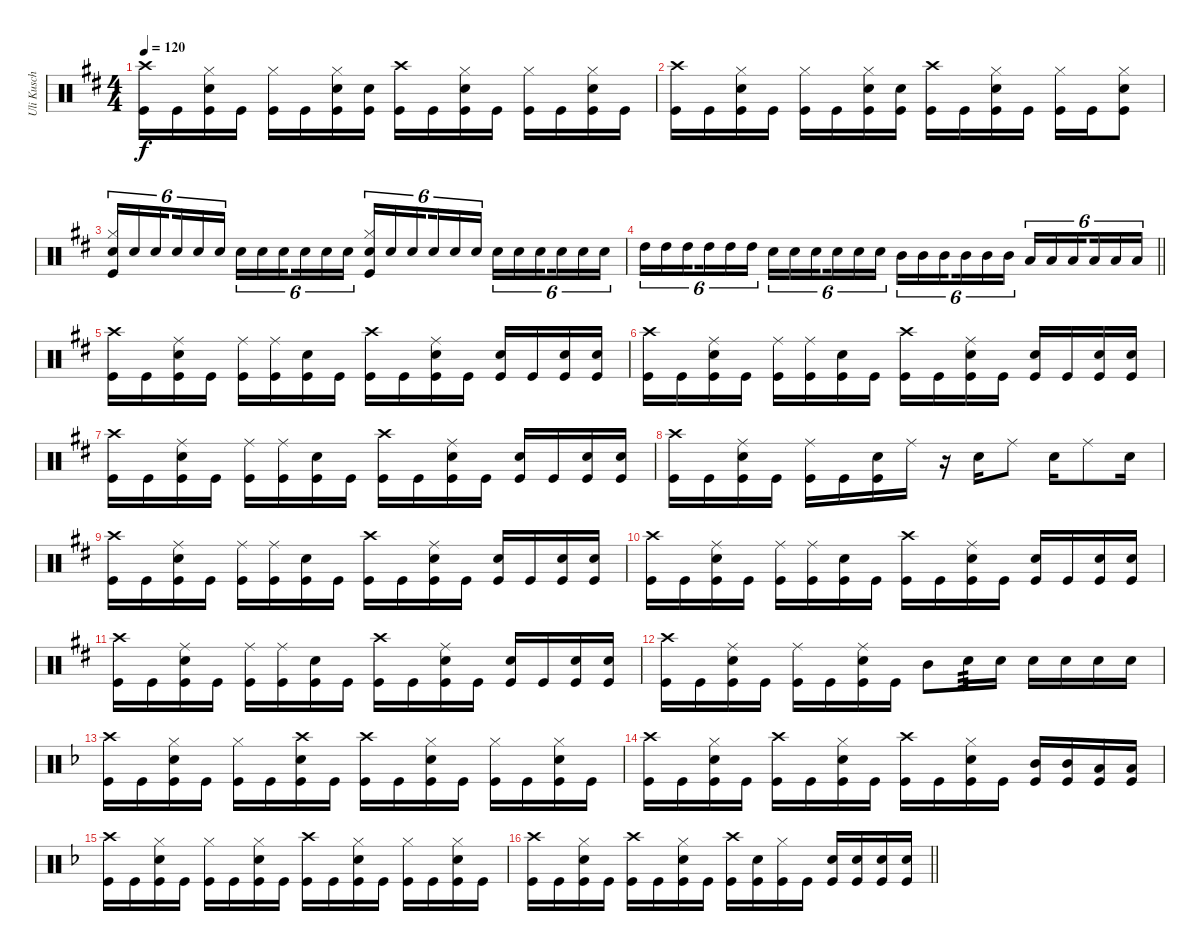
\track ("Uli Kusch" "Uli Kusch") {instrument percussion}
\staff {score}
\articulation defaults
\ts (4 4)
\tempo 120
\clef neutral
\ks d
("Crash high (hit)" "Kick (hit)").16{dy f} "Kick (hit)".16 ("Hi-Hat (closed)" "Snare (hit) 2" "Kick (hit)").16 "Kick (hit)".16 ("Hi-Hat (closed)" "Kick (hit)").16 "Kick (hit)".16 ("Hi-Hat (closed)" "Snare (hit) 2" "Kick (hit)").16 ("Snare (hit) 2" "Kick (hit)").16 ("Crash high (hit)" "Kick (hit)").16 "Kick (hit)".16 ("Hi-Hat (closed)" "Snare (hit) 2" "Kick (hit)").16 "Kick (hit)".16 ("Hi-Hat (closed)" "Kick (hit)").16 "Kick (hit)".16 ("Hi-Hat (closed)" "Snare (hit) 2" "Kick (hit)").16 "Kick (hit)".16 |
("Crash high (hit)" "Kick (hit)").16 "Kick (hit)".16 ("Hi-Hat (closed)" "Snare (hit) 2" "Kick (hit)").16 "Kick (hit)".16 ("Hi-Hat (closed)" "Kick (hit)").16 "Kick (hit)".16 ("Hi-Hat (closed)" "Snare (hit) 2" "Kick (hit)").16 ("Snare (hit) 2" "Kick (hit)").16 ("Crash high (hit)" "Kick (hit)").16 "Kick (hit)".16 ("Hi-Hat (closed)" "Snare (hit) 2" "Kick (hit)").16 "Kick (hit)".16 ("Hi-Hat (closed)" "Kick (hit)").16 "Kick (hit)".16 ("Hi-Hat (closed)" "Snare (hit) 2" "Kick (hit)").8 |
("Hi-Hat (closed)" "Snare (hit) 2" "Kick (hit)").16{tu (6 4)} "Snare (hit) 2".16{tu (6 4)} "Snare (hit) 2".16{tu (6 4) beam splitsecondary} "Snare (hit) 2".16{tu (6 4)} "Snare (hit) 2".16{tu (6 4)} "Snare (hit) 2".16{tu (6 4)} "Snare (hit) 2".16{tu (6 4)} "Snare (hit) 2".16{tu (6 4)} "Snare (hit) 2".16{tu (6 4) beam splitsecondary} "Snare (hit) 2".16{tu (6 4)} "Snare (hit) 2".16{tu (6 4)} "Snare (hit) 2".16{tu (6 4)} ("Hi-Hat (closed)" "Snare (hit) 2" "Kick (hit)").16{tu (6 4)} "Snare (hit) 2".16{tu (6 4)} "Snare (hit) 2".16{tu (6 4) beam splitsecondary} "Snare (hit) 2".16{tu (6 4)} "Snare (hit) 2".16{tu (6 4)} "Snare (hit) 2".16{tu (6 4)} "Snare (hit) 2".16{tu (6 4)} "Snare (hit) 2".16{tu (6 4)} "Snare (hit) 2".16{tu (6 4) beam splitsecondary} "Snare (hit) 2".16{tu (6 4)} "Snare (hit) 2".16{tu (6 4)} "Snare (hit) 2".16{tu (6 4)} |
\barLineRight lightlight "High Tom (hit)".16{tu (6 4)} "High Tom (hit)".16{tu (6 4)} "High Tom (hit)".16{tu (6 4) beam splitsecondary} "High Tom (hit)".16{tu (6 4)} "High Tom (hit)".16{tu (6 4)} "High Tom (hit)".16{tu (6 4)} "Snare (hit) 2".16{tu (6 4)} "Snare (hit) 2".16{tu (6 4)} "Snare (hit) 2".16{tu (6 4) beam splitsecondary} "Snare (hit) 2".16{tu (6 4)} "Snare (hit) 2".16{tu (6 4)} "Snare (hit) 2".16{tu (6 4)} "Mid Tom (hit)".16{tu (6 4)} "Mid Tom (hit)".16{tu (6 4)} "Mid Tom (hit)".16{tu (6 4) beam splitsecondary} "Mid Tom (hit)".16{tu (6 4)} "Mid Tom (hit)".16{tu (6 4)} "Mid Tom (hit)".16{tu (6 4)} "Low Tom (hit)".16{tu (6 4)} "Low Tom (hit)".16{tu (6 4)} "Low Tom (hit)".16{tu (6 4) beam splitsecondary} "Low Tom (hit)".16{tu (6 4)} "Low Tom (hit)".16{tu (6 4)} "Low Tom (hit)".16{tu (6 4)}
|
("Crash high (hit)" "Kick (hit)").16 "Kick (hit)".16 ("Ride (middle)" "Snare (hit) 2" "Kick (hit)").16 "Kick (hit)".16 ("Ride (middle)" "Kick (hit)").16 ("Ride (middle)" "Kick (hit)").16 ("Snare (hit) 2" "Kick (hit)").16 "Kick (hit)".16 ("Crash high (hit)" "Kick (hit)").16 "Kick (hit)".16 ("Ride (middle)" "Snare (hit) 2" "Kick (hit)").16 "Kick (hit)".16 ("Snare (hit) 2" "Kick (hit)").16 "Kick (hit)".16 ("Snare (hit) 2" "Kick (hit)").16 ("Snare (hit) 2" "Kick (hit)").16 |
("Crash high (hit)" "Kick (hit)").16 "Kick (hit)".16 ("Ride (middle)" "Snare (hit) 2" "Kick (hit)").16 "Kick (hit)".16 ("Ride (middle)" "Kick (hit)").16 ("Ride (middle)" "Kick (hit)").16 ("Snare (hit) 2" "Kick (hit)").16 "Kick (hit)".16 ("Crash high (hit)" "Kick (hit)").16 "Kick (hit)".16 ("Ride (middle)" "Snare (hit) 2" "Kick (hit)").16 "Kick (hit)".16 ("Snare (hit) 2" "Kick (hit)").16 "Kick (hit)".16 ("Snare (hit) 2" "Kick (hit)").16 ("Snare (hit) 2" "Kick (hit)").16 |
("Crash high (hit)" "Kick (hit)").16 "Kick (hit)".16 ("Ride (middle)" "Snare (hit) 2" "Kick (hit)").16 "Kick (hit)".16 ("Ride (middle)" "Kick (hit)").16 ("Ride (middle)" "Kick (hit)").16 ("Snare (hit) 2" "Kick (hit)").16 "Kick (hit)".16 ("Crash high (hit)" "Kick (hit)").16 "Kick (hit)".16 ("Ride (middle)" "Snare (hit) 2" "Kick (hit)").16 "Kick (hit)".16 ("Snare (hit) 2" "Kick (hit)").16 "Kick (hit)".16 ("Snare (hit) 2" "Kick (hit)").16 ("Snare (hit) 2" "Kick (hit)").16 |
("Crash high (hit)" "Kick (hit)").16 "Kick (hit)".16 ("Ride (middle)" "Snare (hit) 2" "Kick (hit)").16 "Kick (hit)".16 ("Ride (middle)" "Kick (hit)").16 "Kick (hit)".16 ("Snare (hit) 2" "Kick (hit)").16 "Ride (middle)".16 r.16 "Snare (hit) 2".16 "Ride (middle)".8 "Snare (hit) 2".16 "Ride (middle)".8 "Snare (hit) 2".16 |
("Crash high (hit)" "Kick (hit)").16 "Kick (hit)".16 ("Ride (middle)" "Snare (hit) 2" "Kick (hit)").16 "Kick (hit)".16 ("Ride (middle)" "Kick (hit)").16 ("Ride (middle)" "Kick (hit)").16 ("Snare (hit) 2" "Kick (hit)").16 "Kick (hit)".16 ("Crash high (hit)" "Kick (hit)").16 "Kick (hit)".16 ("Ride (middle)" "Snare (hit) 2" "Kick (hit)").16 "Kick (hit)".16 ("Snare (hit) 2" "Kick (hit)").16 "Kick (hit)".16 ("Snare (hit) 2" "Kick (hit)").16 ("Snare (hit) 2" "Kick (hit)").16 |
("Crash high (hit)" "Kick (hit)").16 "Kick (hit)".16 ("Ride (middle)" "Snare (hit) 2" "Kick (hit)").16 "Kick (hit)".16 ("Ride (middle)" "Kick (hit)").16 ("Ride (middle)" "Kick (hit)").16 ("Snare (hit) 2" "Kick (hit)").16 "Kick (hit)".16 ("Crash high (hit)" "Kick (hit)").16 "Kick (hit)".16 ("Ride (middle)" "Snare (hit) 2" "Kick (hit)").16 "Kick (hit)".16 ("Snare (hit) 2" "Kick (hit)").16 "Kick (hit)".16 ("Snare (hit) 2" "Kick (hit)").16 ("Snare (hit) 2" "Kick (hit)").16 |
("Crash high (hit)" "Kick (hit)").16 "Kick (hit)".16 ("Ride (middle)" "Snare (hit) 2" "Kick (hit)").16 "Kick (hit)".16 ("Ride (middle)" "Kick (hit)").16 ("Ride (middle)" "Kick (hit)").16 ("Snare (hit) 2" "Kick (hit)").16 "Kick (hit)".16 ("Crash high (hit)" "Kick (hit)").16 "Kick (hit)".16 ("Ride (middle)" "Snare (hit) 2" "Kick (hit)").16 "Kick (hit)".16 ("Snare (hit) 2" "Kick (hit)").16 "Kick (hit)".16 ("Snare (hit) 2" "Kick (hit)").16 ("Snare (hit) 2" "Kick (hit)").16 |
("Crash high (hit)" "Kick (hit)").16 "Kick (hit)".16 ("Ride (middle)" "Snare (hit) 2" "Kick (hit)").16 "Kick (hit)".16 ("Ride (middle)" "Kick (hit)").16 "Kick (hit)".16 ("Ride (middle)" "Snare (hit) 2" "Kick (hit)").16 "Kick (hit)".16 "Mid Tom (hit)".8 "Snare (hit) 2".16{tp 3} "Snare (hit) 2".16 "Snare (hit) 2".16 "Snare (hit) 2".16 "Snare (hit) 2".16 "Snare (hit) 2".16 |
\ks f
("Crash high (hit)" "Kick (hit)").16 "Kick (hit)".16 ("Hi-Hat (closed)" "Snare (hit) 2" "Kick (hit)").16 "Kick (hit)".16 ("Hi-Hat (closed)" "Kick (hit)").16 "Kick (hit)".16 ("Crash high (hit)" "Snare (hit) 2" "Kick (hit)").16 "Kick (hit)".16 ("Crash high (hit)" "Kick (hit)").16 "Kick (hit)".16 ("Hi-Hat (closed)" "Snare (hit) 2" "Kick (hit)").16 "Kick (hit)".16 ("Hi-Hat (closed)" "Kick (hit)").16 "Kick (hit)".16 ("Hi-Hat (closed)" "Snare (hit) 2" "Kick (hit)").16 "Kick (hit)".16 |
("Crash high (hit)" "Kick (hit)").16 "Kick (hit)".16 ("Hi-Hat (closed)" "Snare (hit) 2" "Kick (hit)").16 "Kick (hit)".16 ("Crash high (hit)" "Kick (hit)").16 "Kick (hit)".16 ("Hi-Hat (closed)" "Snare (hit) 2" "Kick (hit)").16 "Kick (hit)".16 ("Crash high (hit)" "Kick (hit)").16 "Kick (hit)".16 ("Hi-Hat (closed)" "Snare (hit) 2" "Kick (hit)").16 "Kick (hit)".16 ("Mid Tom (hit)" "Kick (hit)").16 ("Mid Tom (hit)" "Kick (hit)").16 ("Low Tom (hit)" "Kick (hit)").16 ("Low Tom (hit)" "Kick (hit)").16 |
("Crash high (hit)" "Kick (hit)").16 "Kick (hit)".16 ("Hi-Hat (closed)" "Snare (hit) 2" "Kick (hit)").16 "Kick (hit)".16 ("Hi-Hat (closed)" "Kick (hit)").16 "Kick (hit)".16 ("Hi-Hat (closed)" "Snare (hit) 2" "Kick (hit)").16 "Kick (hit)".16 ("Crash high (hit)" "Kick (hit)").16 "Kick (hit)".16 ("Hi-Hat (closed)" "Snare (hit) 2" "Kick (hit)").16 "Kick (hit)".16 ("Hi-Hat (closed)" "Kick (hit)").16 "Kick (hit)".16 ("Hi-Hat (closed)" "Snare (hit) 2" "Kick (hit)").16 "Kick (hit)".16 |
\barLineRight lightlight
("Crash high (hit)" "Kick (hit)").16 "Kick (hit)".16 ("Hi-Hat (closed)" "Snare (hit) 2" "Kick (hit)").16 "Kick (hit)".16 ("Crash high (hit)" "Kick (hit)").16 "Kick (hit)".16 ("Hi-Hat (closed)" "Snare (hit) 2" "Kick (hit)").16 "Kick (hit)".16 ("Crash high (hit)" "Kick (hit)").16 ("Snare (hit) 2" "Kick (hit)").16 ("Hi-Hat (closed)" "Kick (hit)").16 "Kick (hit)".16 ("Snare (hit) 2" "Kick (hit)").16 ("Snare (hit) 2" "Kick (hit)").16 ("Snare (hit) 2" "Kick (hit)").16 ("Snare (hit) 2" "Kick (hit)").16
